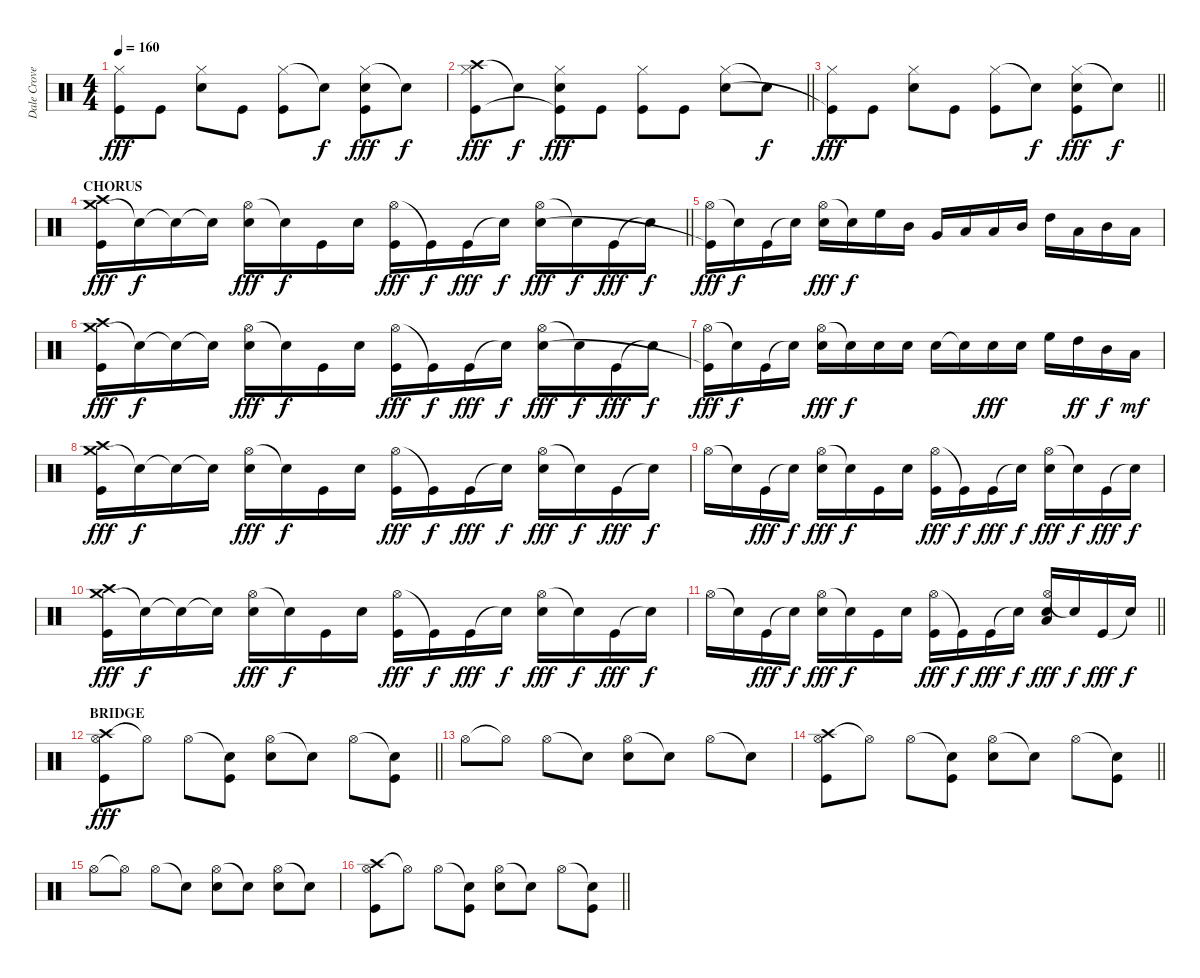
\track ("Dale Crover" "Dale Crove") {instrument percussion}
\staff {score}
\articulation defaults
\ts (4 4)
\tempo 160
\clef neutral
\ks c
("Hi-Hat (closed)" "Kick (hit)"{t}).8{dy fff} "Kick (hit)".8 ("Hi-Hat (closed)" "Snare (hit) 2").8 "Kick (hit)".8 ("Hi-Hat (closed)" "Kick (hit)").8 "Snare (hit)"{t}.8{dy f} ("Hi-Hat (closed)" "Snare (hit) 2" "Kick (hit)").8{dy fff} "Snare (hit)"{t}.8{dy f} |
\barLineRight lightlight
("Crash high (hit)" "Hi-Hat (closed)" "Kick (hit)").8{dy fff} "Snare (hit)"{t}.8{dy f} ("Hi-Hat (closed)" "Snare (hit) 2" "Kick (hit)"{t}).8{dy fff} "Kick (hit)".8 ("Hi-Hat (closed)" "Kick (hit)").8 "Kick (hit)".8 ("Hi-Hat (closed)" "Snare (hit) 2").8 "Snare (hit)"{t}.8{dy f} |
\barLineRight lightlight
("Hi-Hat (closed)" "Kick (hit)"{t}).8{dy fff} "Kick (hit)".8 ("Hi-Hat (closed)" "Snare (hit) 2").8 "Kick (hit)".8 ("Hi-Hat (closed)" "Kick (hit)").8 "Snare (hit)"{t}.8{dy f} ("Hi-Hat (closed)" "Snare (hit) 2" "Kick (hit)").8{dy fff} "Snare (hit)"{t}.8{dy f} |
\section ("" "CHORUS")
\barLineRight lightlight
("Crash medium (hit)" "Crash high (hit)" "Kick (hit)").16{dy fff} "Snare (hit)"{t}.16{dy f} "Snare (hit)"{t}.16 "Snare (hit)"{t}.16 ("Hi-Hat (open)" "Snare (hit) 2").16{dy fff} "Snare (hit)"{t}.16{dy f} "Kick (hit)".16 "Snare (hit) 2".16 ("Hi-Hat (open)" "Kick (hit)").16{dy fff} "Kick (hit)"{t}.16{dy f} "Kick (hit)".16{dy fff} "Snare (hit)"{t}.16{dy f} ("Hi-Hat (open)" "Snare (hit) 2").16{dy fff} "Snare (hit)"{t}.16{dy f} "Kick (hit)".16{dy fff} "Snare (hit)"{t}.16{dy f} |
("Hi-Hat (open)" "Kick (hit)"{t}).16{dy fff} "Snare (hit)"{t}.16{dy f} "Kick (hit)".16 "Snare (hit)"{t}.16 ("Hi-Hat (open)" "Snare (hit) 2").16{dy fff} "Snare (hit)"{t}.16{dy f} "High Floor Tom (hit)".16 "Mid Tom (hit)".16 "Very Low Tom (hit)".16 "Low Floor Tom (hit)".16 "Low Tom (hit)".16 "Mid Tom (hit)".16 "High Tom (hit)".16 "Low Tom (hit)".16 "Mid Tom (hit)".16 "Low Tom (hit)".16 |
("Crash medium (hit)" "Crash high (hit)" "Kick (hit)").16{dy fff} "Snare (hit)"{t}.16{dy f} "Snare (hit)"{t}.16 "Snare (hit)"{t}.16 ("Hi-Hat (open)" "Snare (hit) 2").16{dy fff} "Snare (hit)"{t}.16{dy f} "Kick (hit)".16 "Snare (hit) 2".16 ("Hi-Hat (open)" "Kick (hit)").16{dy fff} "Kick (hit)"{t}.16{dy f} "Kick (hit)".16{dy fff} "Snare (hit)"{t}.16{dy f} ("Hi-Hat (open)" "Snare (hit) 2").16{dy fff} "Snare (hit)"{t}.16{dy f} "Kick (hit)".16{dy fff} "Snare (hit)"{t}.16{dy f} |
("Hi-Hat (open)" "Kick (hit)"{t}).16{dy fff} "Snare (hit)"{t}.16{dy f} "Kick (hit)".16 "Snare (hit)"{t}.16 ("Hi-Hat (open)" "Snare (hit) 2").16{dy fff} "Snare (hit)"{t}.16{dy f} "Snare (hit) 2".16 "Snare (hit) 2".16 "Snare (hit) 2".16 "Snare (hit)"{t}.16 "Snare (hit) 2".16{dy fff} "Snare (hit) 2".16 "High Floor Tom (hit)".16 "High Tom (hit)".16{dy ff} "Mid Tom (hit)".16{dy f} "Low Tom (hit)".16{dy mf} |
("Crash medium (hit)" "Crash high (hit)" "Kick (hit)").16{dy fff} "Snare (hit)"{t}.16{dy f} "Snare (hit)"{t}.16 "Snare (hit)"{t}.16 ("Hi-Hat (open)" "Snare (hit) 2").16{dy fff} "Snare (hit)"{t}.16{dy f} "Kick (hit)".16 "Snare (hit) 2".16 ("Hi-Hat (open)" "Kick (hit)").16{dy fff} "Kick (hit)"{t}.16{dy f} "Kick (hit)".16{dy fff} "Snare (hit)"{t}.16{dy f} ("Hi-Hat (open)" "Snare (hit) 2").16{dy fff} "Snare (hit)"{t}.16{dy f} "Kick (hit)".16{dy fff} "Snare (hit)"{t}.16{dy f} |
"Hi-Hat (open)".16 "Snare (hit)"{t}.16 "Kick (hit)".16{dy fff} "Snare (hit)"{t}.16{dy f} ("Hi-Hat (open)" "Snare (hit) 2").16{dy fff} "Snare (hit)"{t}.16{dy f} "Kick (hit)".16 "Snare (hit) 2".16 ("Hi-Hat (open)" "Kick (hit)").16{dy fff} "Kick (hit)"{t}.16{dy f} "Kick (hit)".16{dy fff} "Snare (hit)"{t}.16{dy f} ("Hi-Hat (open)" "Snare (hit) 2").16{dy fff} "Snare (hit)"{t}.16{dy f} "Kick (hit)".16{dy fff} "Snare (hit)"{t}.16{dy f} |
("Crash medium (hit)" "Crash high (hit)" "Kick (hit)").16{dy fff} "Snare (hit)"{t}.16{dy f} "Snare (hit)"{t}.16 "Snare (hit)"{t}.16 ("Hi-Hat (open)" "Snare (hit) 2").16{dy fff} "Snare (hit)"{t}.16{dy f} "Kick (hit)".16 "Snare (hit) 2".16 ("Hi-Hat (open)" "Kick (hit)").16{dy fff} "Kick (hit)"{t}.16{dy f} "Kick (hit)".16{dy fff} "Snare (hit)"{t}.16{dy f} ("Hi-Hat (open)" "Snare (hit) 2").16{dy fff} "Snare (hit)"{t}.16{dy f} "Kick (hit)".16{dy fff} "Snare (hit)"{t}.16{dy f} |
\barLineRight lightlight "Hi-Hat (open)".16 "Snare (hit)"{t}.16 "Kick (hit)".16{dy fff} "Snare (hit)"{t}.16{dy f}
("Hi-Hat (open)" "Snare (hit) 2").16{dy fff} "Snare (hit)"{t}.16{dy f} "Kick (hit)".16 "Snare (hit) 2".16 ("Hi-Hat (open)" "Kick (hit)").16{dy fff} "Kick (hit)"{t}.16{dy f} "Kick (hit)".16{dy fff} "Snare (hit)"{t}.16{dy f} ("Hi-Hat (open)" "Snare (hit) 2" "Low Tom (hit)").16{dy fff} "Snare (hit)"{t}.16{dy f} "Kick (hit)".16{dy fff} "Snare (hit)"{t}.16{dy f} |
\section ("" "BRIDGE")
\barLineRight lightlight
("Crash high (hit)" "Hi-Hat (open)" "Kick (hit)").8{dy fff} "Hi-Hat (open)"{t}.8 "Hi-Hat (open)".8 ("Snare (hit)"{t} "Kick (hit)").8 ("Hi-Hat (open)" "Snare (hit) 2").8 "Snare (hit)"{t}.8 "Hi-Hat (open)".8 ("Snare (hit)"{t} "Kick (hit)").8 |
"Hi-Hat (open)".8 "Hi-Hat (open)"{t}.8 "Hi-Hat (open)".8 "Snare (hit)"{t}.8 ("Hi-Hat (open)" "Snare (hit) 2").8 "Snare (hit)"{t}.8 "Hi-Hat (open)".8 "Snare (hit)"{t}.8 |
\barLineRight lightlight
("Crash high (hit)" "Hi-Hat (open)" "Kick (hit)").8 "Hi-Hat (open)"{t}.8 "Hi-Hat (open)".8 ("Snare (hit)"{t} "Kick (hit)").8 ("Hi-Hat (open)" "Snare (hit) 2").8 "Snare (hit)"{t}.8 "Hi-Hat (open)".8 ("Snare (hit)"{t} "Kick (hit)").8 |
"Hi-Hat (open)".8 "Hi-Hat (open)"{t}.8 "Hi-Hat (open)".8 "Snare (hit)"{t}.8 ("Hi-Hat (open)" "Snare (hit) 2").8 "Snare (hit)"{t}.8 ("Hi-Hat (open)" "Snare (hit) 2").8 "Snare (hit)"{t}.8 |
\barLineRight lightlight
("Crash high (hit)" "Hi-Hat (open)" "Kick (hit)").8 "Hi-Hat (open)"{t}.8 "Hi-Hat (open)".8 ("Snare (hit)"{t} "Kick (hit)").8 ("Hi-Hat (open)" "Snare (hit) 2").8 "Snare (hit)"{t}.8 "Hi-Hat (open)".8 ("Snare (hit)"{t} "Kick (hit)").8
